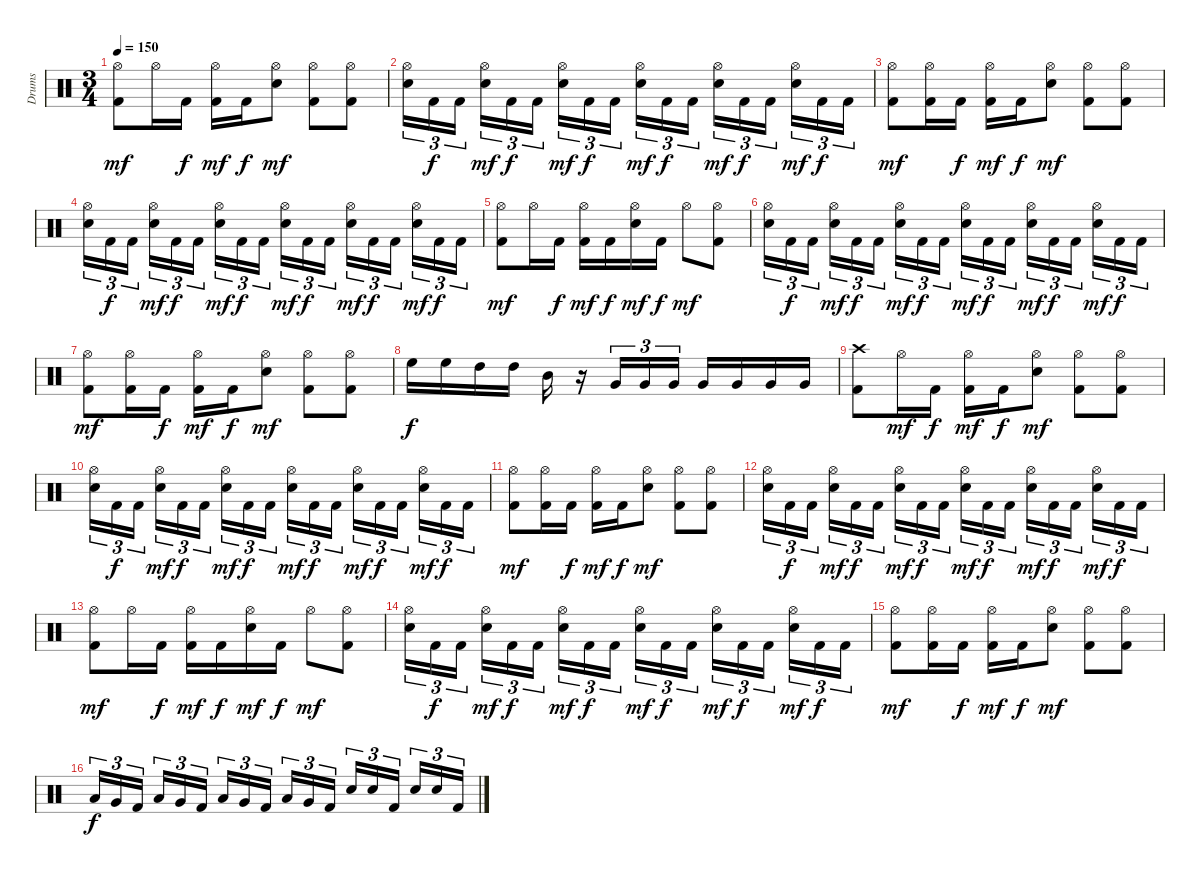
\track ("Drums" "Drums") {instrument percussion}
\staff {score}
\articulation defaults
\ts (3 4)
\tempo 150
\clef neutral
\ks c
("Hi-Hat (open)" "Kick (hit) 2").8{dy mf} "Hi-Hat (open)".16 "Kick (hit) 2".16{dy f} ("Hi-Hat (open)" "Kick (hit) 2").16{dy mf} "Kick (hit) 2".16{dy f} ("Hi-Hat (open)" "Electric Snare (hit)").8{dy mf} ("Hi-Hat (open)" "Kick (hit) 2").8 ("Hi-Hat (open)" "Kick (hit) 2").8 |
("Hi-Hat (open)" "Electric Snare (hit)").16{tu (3 2)} "Kick (hit) 2".16{tu (3 2) dy f} "Kick (hit) 2".16{tu (3 2)} ("Hi-Hat (open)" "Electric Snare (hit)").16{tu (3 2) dy mf} "Kick (hit) 2".16{tu (3 2) dy f} "Kick (hit) 2".16{tu (3 2)} ("Hi-Hat (open)" "Electric Snare (hit)").16{tu (3 2) dy mf} "Kick (hit) 2".16{tu (3 2) dy f} "Kick (hit) 2".16{tu (3 2)} ("Hi-Hat (open)" "Electric Snare (hit)").16{tu (3 2) dy mf} "Kick (hit) 2".16{tu (3 2) dy f} "Kick (hit) 2".16{tu (3 2)} ("Hi-Hat (open)" "Electric Snare (hit)").16{tu (3 2) dy mf} "Kick (hit) 2".16{tu (3 2) dy f} "Kick (hit) 2".16{tu (3 2)} ("Hi-Hat (open)" "Electric Snare (hit)").16{tu (3 2) dy mf} "Kick (hit) 2".16{tu (3 2) dy f} "Kick (hit) 2".16{tu (3 2)} |
("Hi-Hat (open)" "Kick (hit) 2").8{dy mf} ("Hi-Hat (open)" "Kick (hit) 2").16 "Kick (hit) 2".16{dy f} ("Hi-Hat (open)" "Kick (hit) 2").16{dy mf} "Kick (hit) 2".16{dy f} ("Hi-Hat (open)" "Electric Snare (hit)").8{dy mf} ("Hi-Hat (open)" "Kick (hit) 2").8 ("Hi-Hat (open)" "Kick (hit) 2").8 |
("Hi-Hat (open)" "Electric Snare (hit)").16{tu (3 2)} "Kick (hit) 2".16{tu (3 2) dy f} "Kick (hit) 2".16{tu (3 2)} ("Hi-Hat (open)" "Electric Snare (hit)").16{tu (3 2) dy mf} "Kick (hit) 2".16{tu (3 2) dy f} "Kick (hit) 2".16{tu (3 2)} ("Hi-Hat (open)" "Electric Snare (hit)").16{tu (3 2) dy mf} "Kick (hit) 2".16{tu (3 2) dy f} "Kick (hit) 2".16{tu (3 2)} ("Hi-Hat (open)" "Electric Snare (hit)").16{tu (3 2) dy mf} "Kick (hit) 2".16{tu (3 2) dy f} "Kick (hit) 2".16{tu (3 2)} ("Hi-Hat (open)" "Electric Snare (hit)").16{tu (3 2) dy mf} "Kick (hit) 2".16{tu (3 2) dy f} "Kick (hit) 2".16{tu (3 2)} ("Hi-Hat (open)" "Electric Snare (hit)").16{tu (3 2) dy mf} "Kick (hit) 2".16{tu (3 2) dy f} "Kick (hit) 2".16{tu (3 2)} |
("Hi-Hat (open)" "Kick (hit) 2").8{dy mf} "Hi-Hat (open)".16 "Kick (hit) 2".16{dy f} ("Hi-Hat (open)" "Kick (hit) 2").16{dy mf} "Kick (hit) 2".16{dy f} ("Hi-Hat (open)" "Electric Snare (hit)").16{dy mf} "Kick (hit) 2".16{dy f} "Hi-Hat (open)".8{dy mf} ("Hi-Hat (open)" "Kick (hit) 2").8 |
("Hi-Hat (open)" "Electric Snare (hit)").16{tu (3 2)} "Kick (hit) 2".16{tu (3 2) dy f} "Kick (hit) 2".16{tu (3 2)} ("Hi-Hat (open)" "Electric Snare (hit)").16{tu (3 2) dy mf} "Kick (hit) 2".16{tu (3 2) dy f} "Kick (hit) 2".16{tu (3 2)} ("Hi-Hat (open)" "Electric Snare (hit)").16{tu (3 2) dy mf} "Kick (hit) 2".16{tu (3 2) dy f} "Kick (hit) 2".16{tu (3 2)} ("Hi-Hat (open)" "Electric Snare (hit)").16{tu (3 2) dy mf} "Kick (hit) 2".16{tu (3 2) dy f} "Kick (hit) 2".16{tu (3 2)} ("Hi-Hat (open)" "Electric Snare (hit)").16{tu (3 2) dy mf} "Kick (hit) 2".16{tu (3 2) dy f} "Kick (hit) 2".16{tu (3 2)} ("Hi-Hat (open)" "Electric Snare (hit)").16{tu (3 2) dy mf} "Kick (hit) 2".16{tu (3 2) dy f} "Kick (hit) 2".16{tu (3 2)} |
("Hi-Hat (open)" "Kick (hit) 2").8{dy mf} ("Hi-Hat (open)" "Kick (hit) 2").16 "Kick (hit) 2".16{dy f} ("Hi-Hat (open)" "Kick (hit) 2").16{dy mf} "Kick (hit) 2".16{dy f} ("Hi-Hat (open)" "Electric Snare (hit)").8{dy mf} ("Hi-Hat (open)" "Kick (hit) 2").8 ("Hi-Hat (open)" "Kick (hit) 2").8 |
"High Floor Tom (hit)".16{dy f} "High Floor Tom (hit)".16 "High Tom (hit)".16 "High Tom (hit)".16 "Mid Tom (hit)".16 r.16 "Very Low Tom (hit)".16{tu (3 2)} "Very Low Tom (hit)".16{tu (3 2)} "Very Low Tom (hit)".16{tu (3 2)} "Very Low Tom (hit)".16 "Very Low Tom (hit)".16 "Very Low Tom (hit)".16 "Very Low Tom (hit)".16 |
("Crash high (hit)" "Kick (hit) 2").8 "Hi-Hat (open)".16{dy mf} "Kick (hit) 2".16{dy f} ("Hi-Hat (open)" "Kick (hit) 2").16{dy mf} "Kick (hit) 2".16{dy f} ("Hi-Hat (open)" "Electric Snare (hit)").8{dy mf} ("Hi-Hat (open)" "Kick (hit) 2").8 ("Hi-Hat (open)" "Kick (hit) 2").8 |
("Hi-Hat (open)" "Electric Snare (hit)").16{tu (3 2)} "Kick (hit) 2".16{tu (3 2) dy f} "Kick (hit) 2".16{tu (3 2)} ("Hi-Hat (open)" "Electric Snare (hit)").16{tu (3 2) dy mf} "Kick (hit) 2".16{tu (3 2) dy f} "Kick (hit) 2".16{tu (3 2)} ("Hi-Hat (open)" "Electric Snare (hit)").16{tu (3 2) dy mf} "Kick (hit) 2".16{tu (3 2) dy f} "Kick (hit) 2".16{tu (3 2)} ("Hi-Hat (open)" "Electric Snare (hit)").16{tu (3 2) dy mf} "Kick (hit) 2".16{tu (3 2) dy f} "Kick (hit) 2".16{tu (3 2)} ("Hi-Hat (open)" "Electric Snare (hit)").16{tu (3 2) dy mf} "Kick (hit) 2".16{tu (3 2) dy f} "Kick (hit) 2".16{tu (3 2)} ("Hi-Hat (open)" "Electric Snare (hit)").16{tu (3 2) dy mf} "Kick (hit) 2".16{tu (3 2) dy f} "Kick (hit) 2".16{tu (3 2)} |
("Hi-Hat (open)" "Kick (hit) 2").8{dy mf} ("Hi-Hat (open)" "Kick (hit) 2").16 "Kick (hit) 2".16{dy f} ("Hi-Hat (open)" "Kick (hit) 2").16{dy mf} "Kick (hit) 2".16{dy f} ("Hi-Hat (open)" "Electric Snare (hit)").8{dy mf} ("Hi-Hat (open)" "Kick (hit) 2").8 ("Hi-Hat (open)" "Kick (hit) 2").8 |
("Hi-Hat (open)" "Electric Snare (hit)").16{tu (3 2)} "Kick (hit) 2".16{tu (3 2) dy f} "Kick (hit) 2".16{tu (3 2)} ("Hi-Hat (open)" "Electric Snare (hit)").16{tu (3 2) dy mf} "Kick (hit) 2".16{tu (3 2) dy f} "Kick (hit) 2".16{tu (3 2)} ("Hi-Hat (open)" "Electric Snare (hit)").16{tu (3 2) dy mf} "Kick (hit) 2".16{tu (3 2) dy f} "Kick (hit) 2".16{tu (3 2)} ("Hi-Hat (open)" "Electric Snare (hit)").16{tu (3 2) dy mf} "Kick (hit) 2".16{tu (3 2) dy f} "Kick (hit) 2".16{tu (3 2)} ("Hi-Hat (open)" "Electric Snare (hit)").16{tu (3 2) dy mf} "Kick (hit) 2".16{tu (3 2) dy f} "Kick (hit) 2".16{tu (3 2)} ("Hi-Hat (open)" "Electric Snare (hit)").16{tu (3 2) dy mf} "Kick (hit) 2".16{tu (3 2) dy f} "Kick (hit) 2".16{tu (3 2)} |
("Hi-Hat (open)" "Kick (hit) 2").8{dy mf} "Hi-Hat (open)".16 "Kick (hit) 2".16{dy f} ("Hi-Hat (open)" "Kick (hit) 2").16{dy mf} "Kick (hit) 2".16{dy f} ("Hi-Hat (open)" "Electric Snare (hit)").16{dy mf} "Kick (hit) 2".16{dy f} "Hi-Hat (open)".8{dy mf} ("Hi-Hat (open)" "Kick (hit) 2").8 |
("Hi-Hat (open)" "Electric Snare (hit)").16{tu (3 2)} "Kick (hit) 2".16{tu (3 2) dy f} "Kick (hit) 2".16{tu (3 2)} ("Hi-Hat (open)" "Electric Snare (hit)").16{tu (3 2) dy mf} "Kick (hit) 2".16{tu (3 2) dy f} "Kick (hit) 2".16{tu (3 2)} ("Hi-Hat (open)" "Electric Snare (hit)").16{tu (3 2) dy mf} "Kick (hit) 2".16{tu (3 2) dy f} "Kick (hit) 2".16{tu (3 2)} ("Hi-Hat (open)" "Electric Snare (hit)").16{tu (3 2) dy mf} "Kick (hit) 2".16{tu (3 2) dy f} "Kick (hit) 2".16{tu (3 2)} ("Hi-Hat (open)" "Electric Snare (hit)").16{tu (3 2) dy mf} "Kick (hit) 2".16{tu (3 2) dy f} "Kick (hit) 2".16{tu (3 2)} ("Hi-Hat (open)" "Electric Snare (hit)").16{tu (3 2) dy mf} "Kick (hit) 2".16{tu (3 2) dy f} "Kick (hit) 2".16{tu (3 2)} |
("Hi-Hat (open)" "Kick (hit) 2").8{dy mf} ("Hi-Hat (open)" "Kick (hit) 2").16 "Kick (hit) 2".16{dy f} ("Hi-Hat (open)" "Kick (hit) 2").16{dy mf} "Kick (hit) 2".16{dy f} ("Hi-Hat (open)" "Electric Snare (hit)").8{dy mf} ("Hi-Hat (open)" "Kick (hit) 2").8 ("Hi-Hat (open)" "Kick (hit) 2").8 |
"Low Tom (hit)".16{tu (3 2) dy f} "Very Low Tom (hit)".16{tu (3 2)} "Kick (hit) 2".16{tu (3 2)} "Low Tom (hit)".16{tu (3 2)} "Very Low Tom (hit)".16{tu (3 2)} "Kick (hit) 2".16{tu (3 2)} "Low Tom (hit)".16{tu (3 2)} "Very Low Tom (hit)".16{tu (3 2)} "Kick (hit) 2".16{tu (3 2)} "Low Tom (hit)".16{tu (3 2)} "Very Low Tom (hit)".16{tu (3 2)} "Kick (hit) 2".16{tu (3 2)} "Electric Snare (hit)".16{tu (3 2)} "Electric Snare (hit)".16{tu (3 2)} "Kick (hit) 2".16{tu (3 2)} "Electric Snare (hit)".16{tu (3 2)} "Electric Snare (hit)".16{tu (3 2)} "Kick (hit) 2".16{tu (3 2)}
